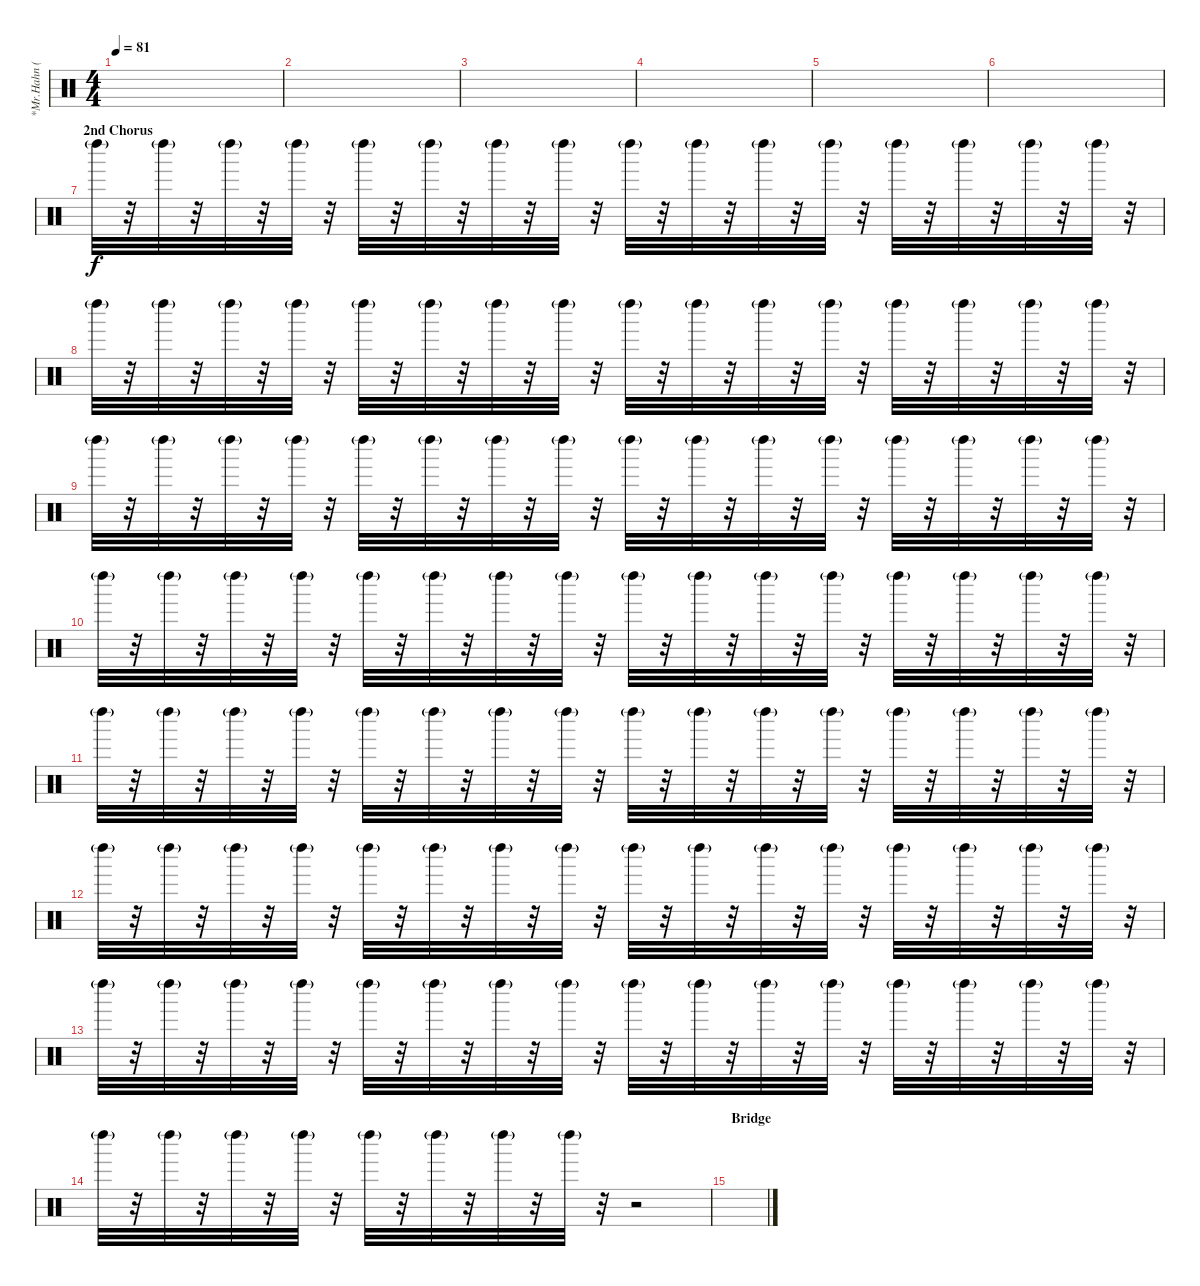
\track ("*Mr.Hahn (Sampler)" "*Mr.Hahn (") {instrument percussion}
\staff {score}
\articulation defaults
\ts (4 4)
\tempo 81
\clef neutral
\ks c
|
|
|
|
|
|
\section ("" "2nd Chorus")
"Left Maraca (hit)"{g}.32 r.32 "Left Maraca (hit)"{g}.32 r.32 "Left Maraca (hit)"{g}.32 r.32 "Left Maraca (hit)"{g}.32 r.32 "Left Maraca (hit)"{g}.32 r.32 "Left Maraca (hit)"{g}.32 r.32 "Left Maraca (hit)"{g}.32 r.32 "Left Maraca (hit)"{g}.32 r.32 "Left Maraca (hit)"{g}.32 r.32 "Left Maraca (hit)"{g}.32 r.32 "Left Maraca (hit)"{g}.32 r.32 "Left Maraca (hit)"{g}.32 r.32 "Left Maraca (hit)"{g}.32 r.32 "Left Maraca (hit)"{g}.32 r.32 "Left Maraca (hit)"{g}.32 r.32 "Left Maraca (hit)"{g}.32 r.32 |
"Left Maraca (hit)"{g}.32 r.32 "Left Maraca (hit)"{g}.32 r.32 "Left Maraca (hit)"{g}.32 r.32 "Left Maraca (hit)"{g}.32 r.32 "Left Maraca (hit)"{g}.32 r.32 "Left Maraca (hit)"{g}.32 r.32 "Left Maraca (hit)"{g}.32 r.32 "Left Maraca (hit)"{g}.32 r.32 "Left Maraca (hit)"{g}.32 r.32 "Left Maraca (hit)"{g}.32 r.32 "Left Maraca (hit)"{g}.32 r.32 "Left Maraca (hit)"{g}.32 r.32 "Left Maraca (hit)"{g}.32 r.32 "Left Maraca (hit)"{g}.32 r.32 "Left Maraca (hit)"{g}.32 r.32 "Left Maraca (hit)"{g}.32 r.32 |
"Left Maraca (hit)"{g}.32 r.32 "Left Maraca (hit)"{g}.32 r.32 "Left Maraca (hit)"{g}.32 r.32 "Left Maraca (hit)"{g}.32 r.32 "Left Maraca (hit)"{g}.32 r.32 "Left Maraca (hit)"{g}.32 r.32 "Left Maraca (hit)"{g}.32 r.32 "Left Maraca (hit)"{g}.32 r.32 "Left Maraca (hit)"{g}.32 r.32 "Left Maraca (hit)"{g}.32 r.32 "Left Maraca (hit)"{g}.32 r.32 "Left Maraca (hit)"{g}.32 r.32 "Left Maraca (hit)"{g}.32 r.32 "Left Maraca (hit)"{g}.32 r.32 "Left Maraca (hit)"{g}.32 r.32 "Left Maraca (hit)"{g}.32 r.32 |
"Left Maraca (hit)"{g}.32 r.32 "Left Maraca (hit)"{g}.32 r.32 "Left Maraca (hit)"{g}.32 r.32 "Left Maraca (hit)"{g}.32 r.32 "Left Maraca (hit)"{g}.32 r.32 "Left Maraca (hit)"{g}.32 r.32 "Left Maraca (hit)"{g}.32 r.32 "Left Maraca (hit)"{g}.32 r.32 "Left Maraca (hit)"{g}.32 r.32 "Left Maraca (hit)"{g}.32 r.32 "Left Maraca (hit)"{g}.32 r.32 "Left Maraca (hit)"{g}.32 r.32 "Left Maraca (hit)"{g}.32 r.32 "Left Maraca (hit)"{g}.32 r.32 "Left Maraca (hit)"{g}.32 r.32 "Left Maraca (hit)"{g}.32 r.32 |
"Left Maraca (hit)"{g}.32 r.32 "Left Maraca (hit)"{g}.32 r.32 "Left Maraca (hit)"{g}.32 r.32 "Left Maraca (hit)"{g}.32 r.32 "Left Maraca (hit)"{g}.32 r.32 "Left Maraca (hit)"{g}.32 r.32 "Left Maraca (hit)"{g}.32 r.32 "Left Maraca (hit)"{g}.32 r.32 "Left Maraca (hit)"{g}.32 r.32 "Left Maraca (hit)"{g}.32 r.32 "Left Maraca (hit)"{g}.32 r.32 "Left Maraca (hit)"{g}.32 r.32 "Left Maraca (hit)"{g}.32 r.32 "Left Maraca (hit)"{g}.32 r.32 "Left Maraca (hit)"{g}.32 r.32 "Left Maraca (hit)"{g}.32 r.32 |
"Left Maraca (hit)"{g}.32 r.32 "Left Maraca (hit)"{g}.32 r.32 "Left Maraca (hit)"{g}.32 r.32 "Left Maraca (hit)"{g}.32 r.32 "Left Maraca (hit)"{g}.32 r.32 "Left Maraca (hit)"{g}.32 r.32 "Left Maraca (hit)"{g}.32 r.32 "Left Maraca (hit)"{g}.32 r.32 "Left Maraca (hit)"{g}.32 r.32 "Left Maraca (hit)"{g}.32 r.32 "Left Maraca (hit)"{g}.32 r.32 "Left Maraca (hit)"{g}.32 r.32 "Left Maraca (hit)"{g}.32 r.32 "Left Maraca (hit)"{g}.32 r.32 "Left Maraca (hit)"{g}.32 r.32 "Left Maraca (hit)"{g}.32 r.32 |
"Left Maraca (hit)"{g}.32 r.32 "Left Maraca (hit)"{g}.32 r.32 "Left Maraca (hit)"{g}.32 r.32 "Left Maraca (hit)"{g}.32 r.32 "Left Maraca (hit)"{g}.32 r.32 "Left Maraca (hit)"{g}.32 r.32 "Left Maraca (hit)"{g}.32 r.32 "Left Maraca (hit)"{g}.32 r.32 "Left Maraca (hit)"{g}.32 r.32 "Left Maraca (hit)"{g}.32 r.32 "Left Maraca (hit)"{g}.32 r.32 "Left Maraca (hit)"{g}.32 r.32 "Left Maraca (hit)"{g}.32 r.32 "Left Maraca (hit)"{g}.32 r.32 "Left Maraca (hit)"{g}.32 r.32 "Left Maraca (hit)"{g}.32 r.32 |
"Left Maraca (hit)"{g}.32 r.32 "Left Maraca (hit)"{g}.32 r.32 "Left Maraca (hit)"{g}.32 r.32 "Left Maraca (hit)"{g}.32 r.32 "Left Maraca (hit)"{g}.32 r.32 "Left Maraca (hit)"{g}.32 r.32 "Left Maraca (hit)"{g}.32 r.32 "Left Maraca (hit)"{g}.32 r.32 r.2 |
\section ("" "Bridge")
